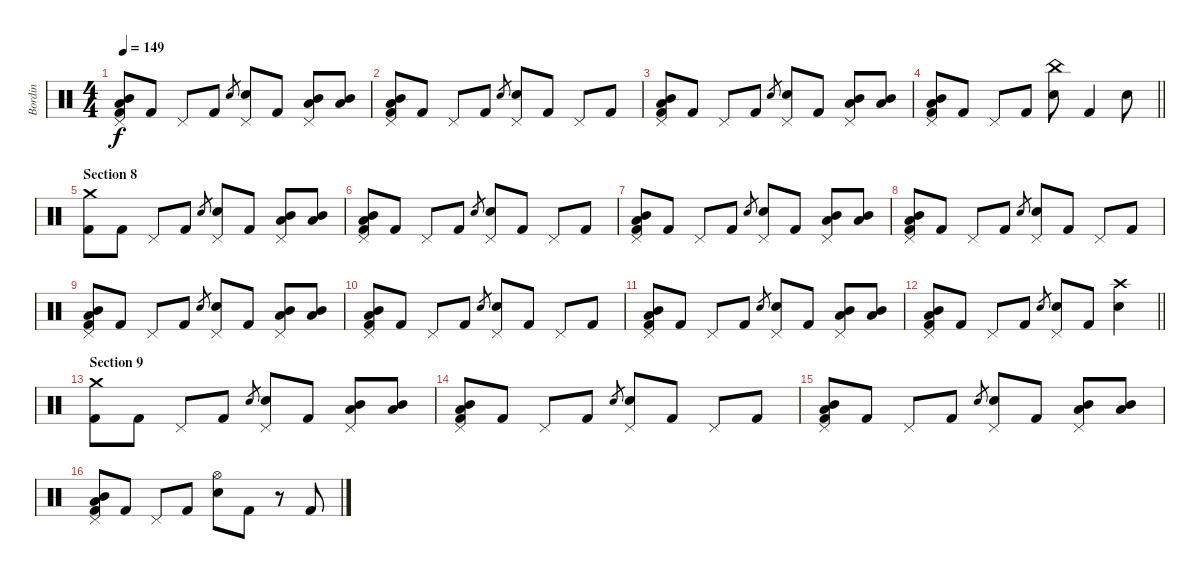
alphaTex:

\track ("Bordin" "Bordin") {instrument percussion}
\staff {score}
\articulation defaults
\ts (4 4)
\tempo 149
\clef neutral
\ks c
("Mid Tom (hit)" "Low Tom (hit)" "Pedal Hi-Hat (hit)" "Kick (hit) 2").8{dy f} "Kick (hit) 2".8 "Pedal Hi-Hat (hit)".8 "Kick (hit) 2".8 "Electric Snare (hit)".8{gr} ("Pedal Hi-Hat (hit)" "Electric Snare (hit)").8 "Kick (hit) 2".8 ("Low Tom (hit)" "Mid Tom (hit)" "Pedal Hi-Hat (hit)").8 ("Low Tom (hit)" "Mid Tom (hit)").8 |
("Mid Tom (hit)" "Low Tom (hit)" "Pedal Hi-Hat (hit)" "Kick (hit) 2").8 "Kick (hit) 2".8 "Pedal Hi-Hat (hit)".8 "Kick (hit) 2".8 "Electric Snare (hit)".8{gr} ("Pedal Hi-Hat (hit)" "Electric Snare (hit)").8 "Kick (hit) 2".8 "Pedal Hi-Hat (hit)".8 "Kick (hit) 2".8 |
("Mid Tom (hit)" "Low Tom (hit)" "Pedal Hi-Hat (hit)" "Kick (hit) 2").8 "Kick (hit) 2".8 "Pedal Hi-Hat (hit)".8 "Kick (hit) 2".8 "Electric Snare (hit)".8{gr} ("Pedal Hi-Hat (hit)" "Electric Snare (hit)").8 "Kick (hit) 2".8 ("Low Tom (hit)" "Mid Tom (hit)" "Pedal Hi-Hat (hit)").8 ("Low Tom (hit)" "Mid Tom (hit)").8 |
\barLineRight lightlight
("Mid Tom (hit)" "Low Tom (hit)" "Pedal Hi-Hat (hit)" "Kick (hit) 2").8 "Kick (hit) 2".8 "Pedal Hi-Hat (hit)".8 "Kick (hit) 2".8 ("China (hit)" "Electric Snare (hit)").8 "Kick (hit) 2".4 "Electric Snare (hit)".8 |
\section ("" "Section 8")
("Crash medium (hit)" "Kick (hit) 2").8 "Kick (hit) 2".8 "Pedal Hi-Hat (hit)".8 "Kick (hit) 2".8 "Electric Snare (hit)".8{gr} ("Pedal Hi-Hat (hit)" "Electric Snare (hit)").8 "Kick (hit) 2".8 ("Low Tom (hit)" "Mid Tom (hit)" "Pedal Hi-Hat (hit)").8 ("Low Tom (hit)" "Mid Tom (hit)").8 |
("Mid Tom (hit)" "Low Tom (hit)" "Pedal Hi-Hat (hit)" "Kick (hit) 2").8 "Kick (hit) 2".8 "Pedal Hi-Hat (hit)".8 "Kick (hit) 2".8 "Electric Snare (hit)".8{gr} ("Pedal Hi-Hat (hit)" "Electric Snare (hit)").8 "Kick (hit) 2".8 "Pedal Hi-Hat (hit)".8 "Kick (hit) 2".8 |
("Mid Tom (hit)" "Low Tom (hit)" "Pedal Hi-Hat (hit)" "Kick (hit) 2").8 "Kick (hit) 2".8 "Pedal Hi-Hat (hit)".8 "Kick (hit) 2".8 "Electric Snare (hit)".8{gr} ("Pedal Hi-Hat (hit)" "Electric Snare (hit)").8 "Kick (hit) 2".8 ("Low Tom (hit)" "Mid Tom (hit)" "Pedal Hi-Hat (hit)").8 ("Low Tom (hit)" "Mid Tom (hit)").8 |
("Mid Tom (hit)" "Low Tom (hit)" "Pedal Hi-Hat (hit)" "Kick (hit) 2").8 "Kick (hit) 2".8 "Pedal Hi-Hat (hit)".8 "Kick (hit) 2".8 "Electric Snare (hit)".8{gr} ("Pedal Hi-Hat (hit)" "Electric Snare (hit)").8 "Kick (hit) 2".8 "Pedal Hi-Hat (hit)".8 "Kick (hit) 2".8 |
("Mid Tom (hit)" "Low Tom (hit)" "Pedal Hi-Hat (hit)" "Kick (hit) 2").8 "Kick (hit) 2".8 "Pedal Hi-Hat (hit)".8 "Kick (hit) 2".8 "Electric Snare (hit)".8{gr} ("Pedal Hi-Hat (hit)" "Electric Snare (hit)").8 "Kick (hit) 2".8 ("Low Tom (hit)" "Mid Tom (hit)" "Pedal Hi-Hat (hit)").8 ("Low Tom (hit)" "Mid Tom (hit)").8 |
("Mid Tom (hit)" "Low Tom (hit)" "Pedal Hi-Hat (hit)" "Kick (hit) 2").8 "Kick (hit) 2".8 "Pedal Hi-Hat (hit)".8 "Kick (hit) 2".8 "Electric Snare (hit)".8{gr} ("Pedal Hi-Hat (hit)" "Electric Snare (hit)").8 "Kick (hit) 2".8 "Pedal Hi-Hat (hit)".8 "Kick (hit) 2".8 |
("Mid Tom (hit)" "Low Tom (hit)" "Pedal Hi-Hat (hit)" "Kick (hit) 2").8 "Kick (hit) 2".8 "Pedal Hi-Hat (hit)".8 "Kick (hit) 2".8 "Electric Snare (hit)".8{gr} ("Pedal Hi-Hat (hit)" "Electric Snare (hit)").8 "Kick (hit) 2".8 ("Low Tom (hit)" "Mid Tom (hit)" "Pedal Hi-Hat (hit)").8 ("Low Tom (hit)" "Mid Tom (hit)").8 |
\barLineRight lightlight
("Mid Tom (hit)" "Low Tom (hit)" "Pedal Hi-Hat (hit)" "Kick (hit) 2").8 "Kick (hit) 2".8 "Pedal Hi-Hat (hit)".8 "Kick (hit) 2".8 "Electric Snare (hit)".8{gr} ("Pedal Hi-Hat (hit)" "Electric Snare (hit)").8 "Kick (hit) 2".8 ("Crash high (hit)" "Electric Snare (hit)").4 |
\section ("" "Section 9")
("Crash medium (hit)" "Kick (hit) 2").8 "Kick (hit) 2".8 "Pedal Hi-Hat (hit)".8 "Kick (hit) 2".8 "Electric Snare (hit)".8{gr} ("Pedal Hi-Hat (hit)" "Electric Snare (hit)").8 "Kick (hit) 2".8 ("Low Tom (hit)" "Mid Tom (hit)" "Pedal Hi-Hat (hit)").8 ("Low Tom (hit)" "Mid Tom (hit)").8 |
("Mid Tom (hit)" "Low Tom (hit)" "Pedal Hi-Hat (hit)" "Kick (hit) 2").8 "Kick (hit) 2".8 "Pedal Hi-Hat (hit)".8 "Kick (hit) 2".8 "Electric Snare (hit)".8{gr} ("Pedal Hi-Hat (hit)" "Electric Snare (hit)").8 "Kick (hit) 2".8 "Pedal Hi-Hat (hit)".8 "Kick (hit) 2".8 |
("Mid Tom (hit)" "Low Tom (hit)" "Pedal Hi-Hat (hit)" "Kick (hit) 2").8 "Kick (hit) 2".8 "Pedal Hi-Hat (hit)".8 "Kick (hit) 2".8 "Electric Snare (hit)".8{gr} ("Pedal Hi-Hat (hit)" "Electric Snare (hit)").8 "Kick (hit) 2".8 ("Low Tom (hit)" "Mid Tom (hit)" "Pedal Hi-Hat (hit)").8 ("Low Tom (hit)" "Mid Tom (hit)").8 |
("Mid Tom (hit)" "Low Tom (hit)" "Pedal Hi-Hat (hit)" "Kick (hit) 2").8 "Kick (hit) 2".8 "Pedal Hi-Hat (hit)".8 "Kick (hit) 2".8 ("Hi-Hat (open)" "Electric Snare (hit)").8 "Kick (hit) 2".8 r.8 "Kick (hit) 2".8
